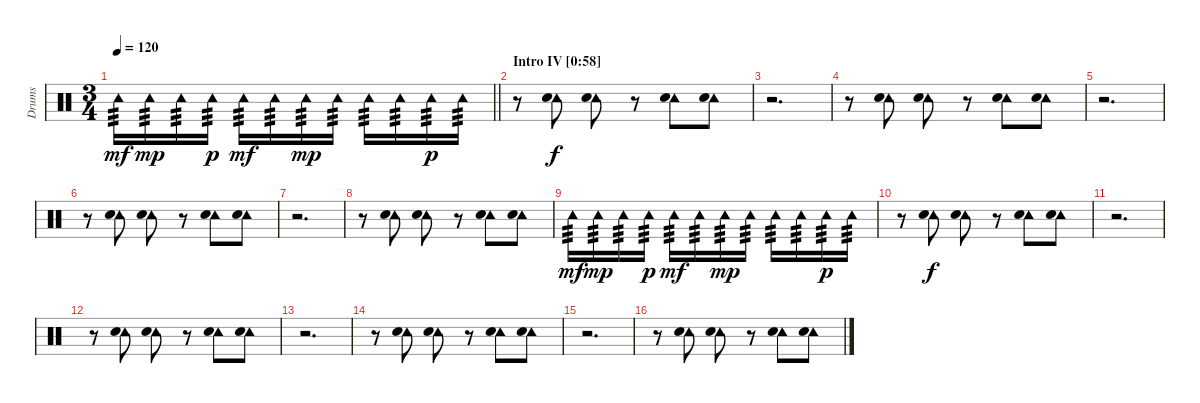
\track ("Drums" "Drums") {instrument percussion}
\staff {score}
\articulation defaults
\ts (3 4)
\tempo 120
\clef neutral
\barLineRight lightlight
\ks c "Tambourine (hit)".16{tp 3 dy mf} "Tambourine (hit)".16{tp 3 dy mp} "Tambourine (hit)".16{tp 3} "Tambourine (hit)".16{tp 3 dy p} "Tambourine (hit)".16{tp 3 dy mf} "Tambourine (hit)".16{tp 3} "Tambourine (hit)".16{tp 3 dy mp} "Tambourine (hit)".16{tp 3} "Tambourine (hit)".16{tp 3} "Tambourine (hit)".16{tp 3} "Tambourine (hit)".16{tp 3 dy p} "Tambourine (hit)".16{tp 3}
|
\section ("" "Intro IV [0:58]")
r.8 ("Tambourine (hit)" "Snare (hit) 2").8{dy f volume 11} ("Tambourine (hit)" "Snare (hit) 2").8 r.8 ("Tambourine (hit)" "Snare (hit) 2").8 ("Tambourine (hit)" "Snare (hit) 2").8 |
r.2{d} |
r.8 ("Tambourine (hit)" "Snare (hit) 2").8 ("Tambourine (hit)" "Snare (hit) 2").8 r.8 ("Tambourine (hit)" "Snare (hit) 2").8 ("Tambourine (hit)" "Snare (hit) 2").8 |
r.2{d} |
r.8 ("Tambourine (hit)" "Snare (hit) 2").8 ("Tambourine (hit)" "Snare (hit) 2").8 r.8 ("Tambourine (hit)" "Snare (hit) 2").8 ("Tambourine (hit)" "Snare (hit) 2").8 |
r.2{d} |
r.8 ("Tambourine (hit)" "Snare (hit) 2").8 ("Tambourine (hit)" "Snare (hit) 2").8 r.8 ("Tambourine (hit)" "Snare (hit) 2").8 ("Tambourine (hit)" "Snare (hit) 2").8 |
"Tambourine (hit)".16{tp 3 dy mf} "Tambourine (hit)".16{tp 3 dy mp} "Tambourine (hit)".16{tp 3} "Tambourine (hit)".16{tp 3 dy p} "Tambourine (hit)".16{tp 3 dy mf} "Tambourine (hit)".16{tp 3} "Tambourine (hit)".16{tp 3 dy mp} "Tambourine (hit)".16{tp 3} "Tambourine (hit)".16{tp 3} "Tambourine (hit)".16{tp 3} "Tambourine (hit)".16{tp 3 dy p} "Tambourine (hit)".16{tp 3} |
r.8 ("Tambourine (hit)" "Snare (hit) 2").8{dy f} ("Tambourine (hit)" "Snare (hit) 2").8 r.8 ("Tambourine (hit)" "Snare (hit) 2").8 ("Tambourine (hit)" "Snare (hit) 2").8 |
r.2{d} |
r.8 ("Tambourine (hit)" "Snare (hit) 2").8 ("Tambourine (hit)" "Snare (hit) 2").8 r.8 ("Tambourine (hit)" "Snare (hit) 2").8 ("Tambourine (hit)" "Snare (hit) 2").8 |
r.2{d} |
r.8 ("Tambourine (hit)" "Snare (hit) 2").8 ("Tambourine (hit)" "Snare (hit) 2").8 r.8 ("Tambourine (hit)" "Snare (hit) 2").8 ("Tambourine (hit)" "Snare (hit) 2").8 |
r.2{d} |
r.8 ("Tambourine (hit)" "Snare (hit) 2").8 ("Tambourine (hit)" "Snare (hit) 2").8 r.8 ("Tambourine (hit)" "Snare (hit) 2").8 ("Tambourine (hit)" "Snare (hit) 2").8
